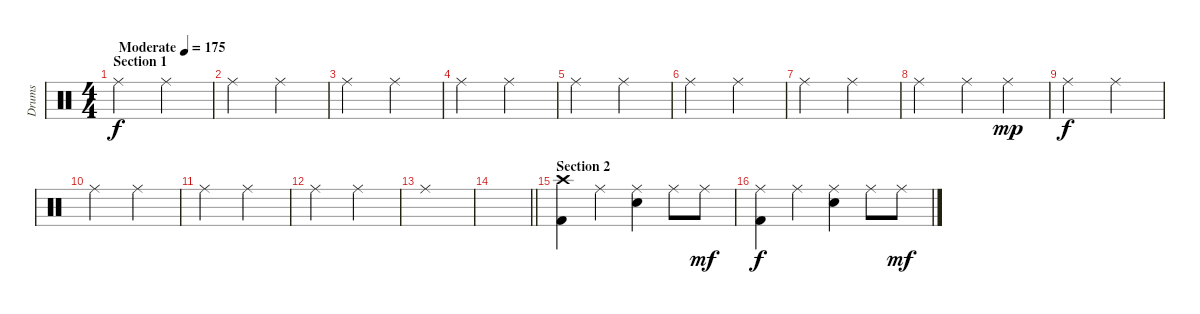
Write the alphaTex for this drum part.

\track ("Drums" "Drums") {instrument percussion}
\staff {score}
\articulation defaults
\ts (4 4)
\section ("" "Section 1")
\tempo (175 "Moderate")
\clef neutral
\ks c "Ride (middle)".2{dy f} "Ride (middle)".2
|
"Ride (middle)".2 "Ride (middle)".2 |
"Ride (middle)".2 "Ride (middle)".2 |
"Ride (middle)".2 "Ride (middle)".2 |
"Ride (middle)".2 "Ride (middle)".2 |
"Ride (middle)".2 "Ride (middle)".2 |
"Ride (middle)".2 "Ride (middle)".2 |
"Ride (middle)".2 "Ride (middle)".4 "Ride (middle)".4{dy mp} |
"Ride (middle)".2{dy f} "Ride (middle)".2 |
"Ride (middle)".2 "Ride (middle)".2 |
"Ride (middle)".2 "Ride (middle)".2 |
"Ride (middle)".2 "Ride (middle)".2 |
"Ride (middle)".1 |
\barLineRight lightlight
|
\section ("" "Section 2")
("Crash high (hit)" "Kick (hit) 2").4 "Ride (middle)".4 ("Ride (middle)" "Snare (hit) 2").4 "Ride (middle)".8 "Ride (middle)".8{dy mf} |
("Ride (middle)" "Kick (hit) 2").4{dy f} "Ride (middle)".4 ("Ride (middle)" "Snare (hit) 2").4 "Ride (middle)".8 "Ride (middle)".8{dy mf}
